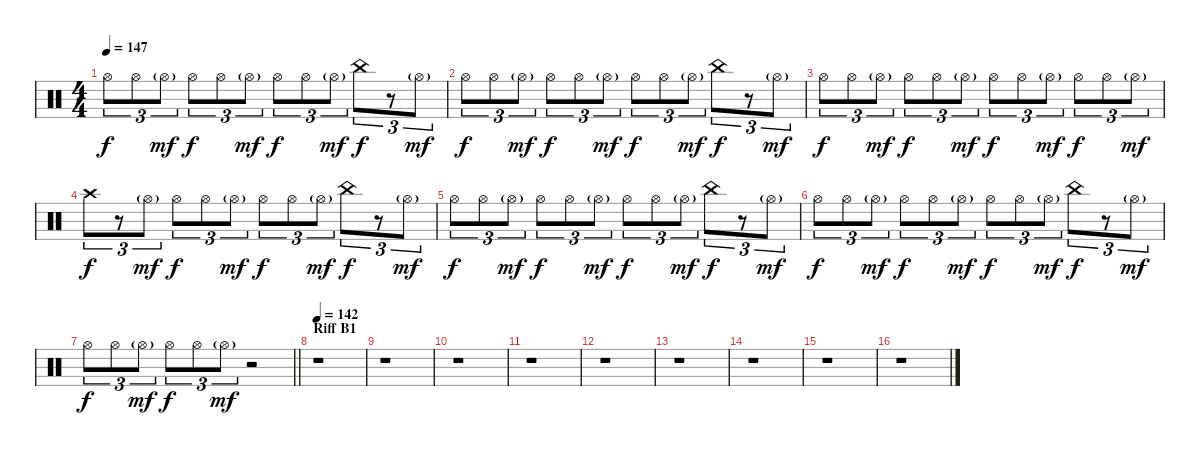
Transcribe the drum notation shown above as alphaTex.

\track "" {instrument percussion}
\staff {score}
\articulation defaults
\ts (4 4)
\tempo 147
\clef neutral
\ks c "Hi-Hat (open)".8{tu (3 2) dy f} "Hi-Hat (open)".8{tu (3 2)} "Hi-Hat (open)"{g}.8{tu (3 2) dy mf} "Hi-Hat (open)".8{tu (3 2) dy f} "Hi-Hat (open)".8{tu (3 2)} "Hi-Hat (open)"{g}.8{tu (3 2) dy mf} "Hi-Hat (open)".8{tu (3 2) dy f} "Hi-Hat (open)".8{tu (3 2)} "Hi-Hat (open)"{g}.8{tu (3 2) dy mf} "China (hit)".8{tu (3 2) dy f}
r.8{tu (3 2)} "Hi-Hat (open)"{g}.8{tu (3 2) dy mf} |
"Hi-Hat (open)".8{tu (3 2) dy f} "Hi-Hat (open)".8{tu (3 2)} "Hi-Hat (open)"{g}.8{tu (3 2) dy mf} "Hi-Hat (open)".8{tu (3 2) dy f} "Hi-Hat (open)".8{tu (3 2)} "Hi-Hat (open)"{g}.8{tu (3 2) dy mf} "Hi-Hat (open)".8{tu (3 2) dy f} "Hi-Hat (open)".8{tu (3 2)} "Hi-Hat (open)"{g}.8{tu (3 2) dy mf} "China (hit)".8{tu (3 2) dy f} r.8{tu (3 2)} "Hi-Hat (open)"{g}.8{tu (3 2) dy mf} |
"Hi-Hat (open)".8{tu (3 2) dy f} "Hi-Hat (open)".8{tu (3 2)} "Hi-Hat (open)"{g}.8{tu (3 2) dy mf} "Hi-Hat (open)".8{tu (3 2) dy f} "Hi-Hat (open)".8{tu (3 2)} "Hi-Hat (open)"{g}.8{tu (3 2) dy mf} "Hi-Hat (open)".8{tu (3 2) dy f} "Hi-Hat (open)".8{tu (3 2)} "Hi-Hat (open)"{g}.8{tu (3 2) dy mf} "Hi-Hat (open)".8{tu (3 2) dy f} "Hi-Hat (open)".8{tu (3 2)} "Hi-Hat (open)"{g}.8{tu (3 2) dy mf} |
"Crash high (hit)".8{tu (3 2) dy f} r.8{tu (3 2)} "Hi-Hat (open)"{g}.8{tu (3 2) dy mf} "Hi-Hat (open)".8{tu (3 2) dy f} "Hi-Hat (open)".8{tu (3 2)} "Hi-Hat (open)"{g}.8{tu (3 2) dy mf} "Hi-Hat (open)".8{tu (3 2) dy f} "Hi-Hat (open)".8{tu (3 2)} "Hi-Hat (open)"{g}.8{tu (3 2) dy mf} "China (hit)".8{tu (3 2) dy f} r.8{tu (3 2)} "Hi-Hat (open)"{g}.8{tu (3 2) dy mf} |
"Hi-Hat (open)".8{tu (3 2) dy f} "Hi-Hat (open)".8{tu (3 2)} "Hi-Hat (open)"{g}.8{tu (3 2) dy mf} "Hi-Hat (open)".8{tu (3 2) dy f} "Hi-Hat (open)".8{tu (3 2)} "Hi-Hat (open)"{g}.8{tu (3 2) dy mf} "Hi-Hat (open)".8{tu (3 2) dy f} "Hi-Hat (open)".8{tu (3 2)} "Hi-Hat (open)"{g}.8{tu (3 2) dy mf} "China (hit)".8{tu (3 2) dy f} r.8{tu (3 2)} "Hi-Hat (open)"{g}.8{tu (3 2) dy mf} |
"Hi-Hat (open)".8{tu (3 2) dy f} "Hi-Hat (open)".8{tu (3 2)} "Hi-Hat (open)"{g}.8{tu (3 2) dy mf} "Hi-Hat (open)".8{tu (3 2) dy f} "Hi-Hat (open)".8{tu (3 2)} "Hi-Hat (open)"{g}.8{tu (3 2) dy mf} "Hi-Hat (open)".8{tu (3 2) dy f} "Hi-Hat (open)".8{tu (3 2)} "Hi-Hat (open)"{g}.8{tu (3 2) dy mf} "China (hit)".8{tu (3 2) dy f} r.8{tu (3 2)} "Hi-Hat (open)"{g}.8{tu (3 2) dy mf} |
\barLineRight lightlight "Hi-Hat (open)".8{tu (3 2) dy f} "Hi-Hat (open)".8{tu (3 2)} "Hi-Hat (open)"{g}.8{tu (3 2) dy mf} "Hi-Hat (open)".8{tu (3 2) dy f} "Hi-Hat (open)".8{tu (3 2)} "Hi-Hat (open)"{g}.8{tu (3 2) dy mf}
r.2 |
\section ("" "Riff B1")
\tempo 142
r.1 |
r.1 |
r.1 |
r.1 |
r.1 |
r.1 |
r.1 |
r.1 |
r.1
